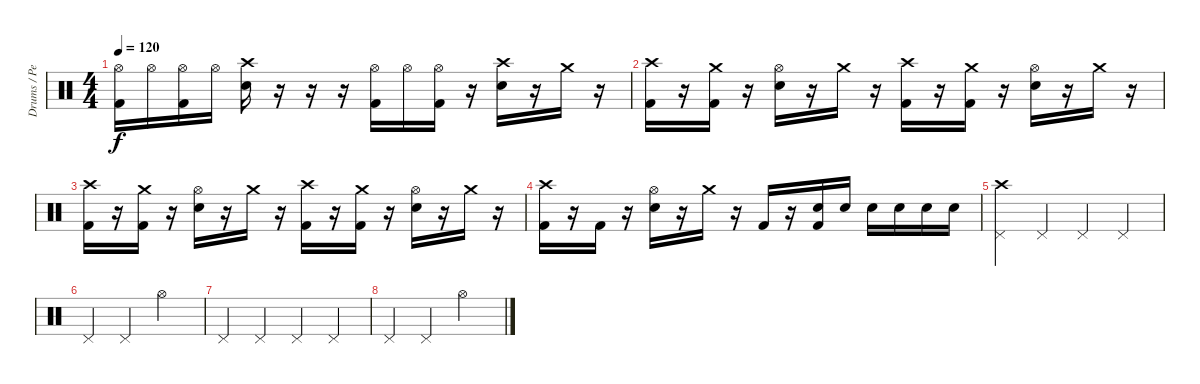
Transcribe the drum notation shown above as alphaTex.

\track ("Drums / Percussion" "Drums / Pe") {instrument percussion}
\staff {score}
\articulation defaults
\ts (4 4)
\tempo 120
\clef neutral
\ks c
("Hi-Hat (open)" "Kick (hit) 2").16{dy f} "Hi-Hat (open)".16 ("Hi-Hat (open)" "Kick (hit) 2").16 "Hi-Hat (open)".16 ("Crash high (hit)" "Snare (hit) 2").16 r.16 r.16 r.16 ("Hi-Hat (open)" "Kick (hit) 2").16 "Hi-Hat (open)".16 ("Hi-Hat (open)" "Kick (hit) 2").16 r.16 ("Crash high (hit)" "Snare (hit) 2").16 r.16 "Crash medium (hit)".16 r.16 |
("Crash high (hit)" "Kick (hit) 2").16 r.16 ("Crash medium (hit)" "Kick (hit) 2").16 r.16 ("Hi-Hat (open)" "Snare (hit) 2").16 r.16 "Crash medium (hit)".16 r.16 ("Crash high (hit)" "Kick (hit) 2").16 r.16 ("Crash medium (hit)" "Kick (hit) 2").16 r.16 ("Hi-Hat (open)" "Snare (hit) 2").16 r.16 "Crash medium (hit)".16 r.16 |
("Crash high (hit)" "Kick (hit) 2").16 r.16 ("Crash medium (hit)" "Kick (hit) 2").16 r.16 ("Hi-Hat (open)" "Snare (hit) 2").16 r.16 "Crash medium (hit)".16 r.16 ("Crash high (hit)" "Kick (hit) 2").16 r.16 ("Crash medium (hit)" "Kick (hit) 2").16 r.16 ("Hi-Hat (open)" "Snare (hit) 2").16 r.16 "Crash medium (hit)".16 r.16 |
("Crash high (hit)" "Kick (hit) 2").16 r.16 "Kick (hit) 2".16 r.16 ("Hi-Hat (open)" "Snare (hit) 2").16 r.16 "Crash medium (hit)".16 r.16 "Kick (hit) 2".16 r.16 ("Snare (hit) 2" "Kick (hit) 2").16 "Snare (hit) 2".16 "Snare (hit) 2".16 "Snare (hit) 2".16 "Snare (hit) 2".16 "Snare (hit) 2".16 |
("Crash high (hit)" "Pedal Hi-Hat (hit)").4 "Pedal Hi-Hat (hit)".4 "Pedal Hi-Hat (hit)".4 "Pedal Hi-Hat (hit)".4 |
"Pedal Hi-Hat (hit)".4 "Pedal Hi-Hat (hit)".4 "Hi-Hat (open)".2 |
"Pedal Hi-Hat (hit)".4 "Pedal Hi-Hat (hit)".4 "Pedal Hi-Hat (hit)".4 "Pedal Hi-Hat (hit)".4 |
"Pedal Hi-Hat (hit)".4 "Pedal Hi-Hat (hit)".4 "Hi-Hat (open)".2
